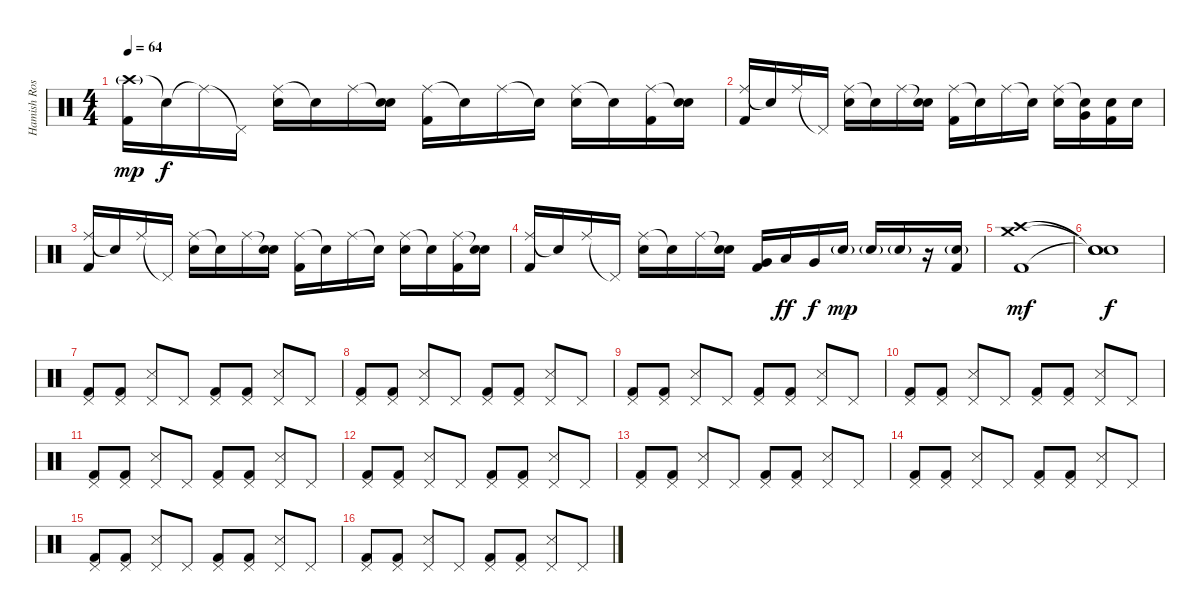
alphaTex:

\track ("Hamish Rosser" "Hamish Ros") {instrument percussion}
\staff {score}
\articulation defaults
\ts (4 4)
\tempo 64
\clef neutral
\ks c
("Crash high (hit)"{g} "Kick (hit) 2").16{dy mp} "Snare (hit)"{t}.16{dy f} "Ride (middle)"{t}.16 "Pedal Hi-Hat (hit)"{t}.16 ("Ride (middle)" "Electric Snare (hit)").16 "Snare (hit)"{t}.16 "Ride (middle)".16 ("Snare (hit)"{t} "Electric Snare (hit)").16 ("Ride (middle)" "Kick (hit) 2").16 "Snare (hit)"{t}.16 "Ride (middle)".16 "Snare (hit)"{t}.16 ("Ride (middle)" "Electric Snare (hit)").16 "Snare (hit)"{t}.16 ("Ride (middle)" "Kick (hit) 2").16 ("Snare (hit)"{t} "Electric Snare (hit)").16 |
("Ride (middle)" "Kick (hit) 2").16 "Snare (hit)"{t}.16 "Ride (middle)".16 "Pedal Hi-Hat (hit)"{t}.16 ("Ride (middle)" "Electric Snare (hit)").16 "Snare (hit)"{t}.16 "Ride (middle)".16 ("Snare (hit)"{t} "Electric Snare (hit)").16 ("Ride (middle)" "Kick (hit) 2").16 "Snare (hit)"{t}.16 "Ride (middle)".16 "Snare (hit)"{t}.16 ("Ride (middle)" "Electric Snare (hit)").16 ("Snare (hit)"{t} "Very Low Tom (hit)").16 ("Electric Snare (hit)" "Kick (hit) 2").16 "Electric Snare (hit)".16 |
("Ride (middle)" "Kick (hit) 2").16 "Snare (hit)"{t}.16 "Ride (middle)".16 "Pedal Hi-Hat (hit)"{t}.16 ("Ride (middle)" "Electric Snare (hit)").16 "Snare (hit)"{t}.16 "Ride (middle)".16 ("Snare (hit)"{t} "Electric Snare (hit)").16 ("Ride (middle)" "Kick (hit) 2").16 "Snare (hit)"{t}.16 "Ride (middle)".16 "Snare (hit)"{t}.16 ("Ride (middle)" "Electric Snare (hit)").16 "Snare (hit)"{t}.16 ("Ride (middle)" "Kick (hit) 2").16 ("Snare (hit)"{t} "Electric Snare (hit)").16 |
("Ride (middle)" "Kick (hit) 2").16 "Snare (hit)"{t}.16 "Ride (middle)".16 "Pedal Hi-Hat (hit)"{t}.16 ("Ride (middle)" "Electric Snare (hit)").16 "Snare (hit)"{t}.16 "Ride (middle)".16 ("Snare (hit)"{t} "Electric Snare (hit)").16 ("Very Low Tom (hit)" "Kick (hit) 2").16 "Low Tom (hit)".16{dy ff} "Very Low Tom (hit)".16{dy f} "Electric Snare (hit)"{g}.16{dy mp} "Electric Snare (hit)"{g}.16 "Electric Snare (hit)"{g}.16 r.16 ("Electric Snare (hit)"{g} "Kick (hit) 2").16 |
("Crash medium (hit)" "Crash high (hit)" "Kick (hit) 2").1{dy mf} |
("Snare (hit)"{t} "Snare (hit)"{t} "Snare (hit)"{t}).1{dy f} |
("Pedal Hi-Hat (hit)" "Kick (hit) 2").8 ("Pedal Hi-Hat (hit)" "Kick (hit) 2").8 ("Pedal Hi-Hat (hit)" "Snare (side stick) 3").8 "Pedal Hi-Hat (hit)".8 ("Pedal Hi-Hat (hit)" "Kick (hit) 2").8 ("Pedal Hi-Hat (hit)" "Kick (hit) 2").8 ("Pedal Hi-Hat (hit)" "Snare (side stick) 3").8 "Pedal Hi-Hat (hit)".8 |
("Pedal Hi-Hat (hit)" "Kick (hit) 2").8 ("Pedal Hi-Hat (hit)" "Kick (hit) 2").8 ("Pedal Hi-Hat (hit)" "Snare (side stick) 3").8 "Pedal Hi-Hat (hit)".8 ("Pedal Hi-Hat (hit)" "Kick (hit) 2").8 ("Pedal Hi-Hat (hit)" "Kick (hit) 2").8 ("Pedal Hi-Hat (hit)" "Snare (side stick) 3").8 "Pedal Hi-Hat (hit)".8 |
("Pedal Hi-Hat (hit)" "Kick (hit) 2").8 ("Pedal Hi-Hat (hit)" "Kick (hit) 2").8 ("Pedal Hi-Hat (hit)" "Snare (side stick) 3").8 "Pedal Hi-Hat (hit)".8 ("Pedal Hi-Hat (hit)" "Kick (hit) 2").8 ("Pedal Hi-Hat (hit)" "Kick (hit) 2").8 ("Pedal Hi-Hat (hit)" "Snare (side stick) 3").8 "Pedal Hi-Hat (hit)".8 |
("Pedal Hi-Hat (hit)" "Kick (hit) 2").8 ("Pedal Hi-Hat (hit)" "Kick (hit) 2").8 ("Pedal Hi-Hat (hit)" "Snare (side stick) 3").8 "Pedal Hi-Hat (hit)".8 ("Pedal Hi-Hat (hit)" "Kick (hit) 2").8 ("Pedal Hi-Hat (hit)" "Kick (hit) 2").8 ("Pedal Hi-Hat (hit)" "Snare (side stick) 3").8 "Pedal Hi-Hat (hit)".8 |
("Pedal Hi-Hat (hit)" "Kick (hit) 2").8 ("Pedal Hi-Hat (hit)" "Kick (hit) 2").8 ("Pedal Hi-Hat (hit)" "Snare (side stick) 3").8 "Pedal Hi-Hat (hit)".8 ("Pedal Hi-Hat (hit)" "Kick (hit) 2").8 ("Pedal Hi-Hat (hit)" "Kick (hit) 2").8 ("Pedal Hi-Hat (hit)" "Snare (side stick) 3").8 "Pedal Hi-Hat (hit)".8 |
("Pedal Hi-Hat (hit)" "Kick (hit) 2").8 ("Pedal Hi-Hat (hit)" "Kick (hit) 2").8 ("Pedal Hi-Hat (hit)" "Snare (side stick) 3").8 "Pedal Hi-Hat (hit)".8 ("Pedal Hi-Hat (hit)" "Kick (hit) 2").8 ("Pedal Hi-Hat (hit)" "Kick (hit) 2").8 ("Pedal Hi-Hat (hit)" "Snare (side stick) 3").8 "Pedal Hi-Hat (hit)".8 |
("Pedal Hi-Hat (hit)" "Kick (hit) 2").8 ("Pedal Hi-Hat (hit)" "Kick (hit) 2").8 ("Pedal Hi-Hat (hit)" "Snare (side stick) 3").8 "Pedal Hi-Hat (hit)".8 ("Pedal Hi-Hat (hit)" "Kick (hit) 2").8 ("Pedal Hi-Hat (hit)" "Kick (hit) 2").8 ("Pedal Hi-Hat (hit)" "Snare (side stick) 3").8 "Pedal Hi-Hat (hit)".8 |
("Pedal Hi-Hat (hit)" "Kick (hit) 2").8 ("Pedal Hi-Hat (hit)" "Kick (hit) 2").8 ("Pedal Hi-Hat (hit)" "Snare (side stick) 3").8 "Pedal Hi-Hat (hit)".8 ("Pedal Hi-Hat (hit)" "Kick (hit) 2").8 ("Pedal Hi-Hat (hit)" "Kick (hit) 2").8 ("Pedal Hi-Hat (hit)" "Snare (side stick) 3").8 "Pedal Hi-Hat (hit)".8 |
("Pedal Hi-Hat (hit)" "Kick (hit) 2").8 ("Pedal Hi-Hat (hit)" "Kick (hit) 2").8 ("Pedal Hi-Hat (hit)" "Snare (side stick) 3").8 "Pedal Hi-Hat (hit)".8 ("Pedal Hi-Hat (hit)" "Kick (hit) 2").8 ("Pedal Hi-Hat (hit)" "Kick (hit) 2").8 ("Pedal Hi-Hat (hit)" "Snare (side stick) 3").8 "Pedal Hi-Hat (hit)".8 |
("Pedal Hi-Hat (hit)" "Kick (hit) 2").8 ("Pedal Hi-Hat (hit)" "Kick (hit) 2").8 ("Pedal Hi-Hat (hit)" "Snare (side stick) 3").8 "Pedal Hi-Hat (hit)".8 ("Pedal Hi-Hat (hit)" "Kick (hit) 2").8 ("Pedal Hi-Hat (hit)" "Kick (hit) 2").8 ("Pedal Hi-Hat (hit)" "Snare (side stick) 3").8 "Pedal Hi-Hat (hit)".8
